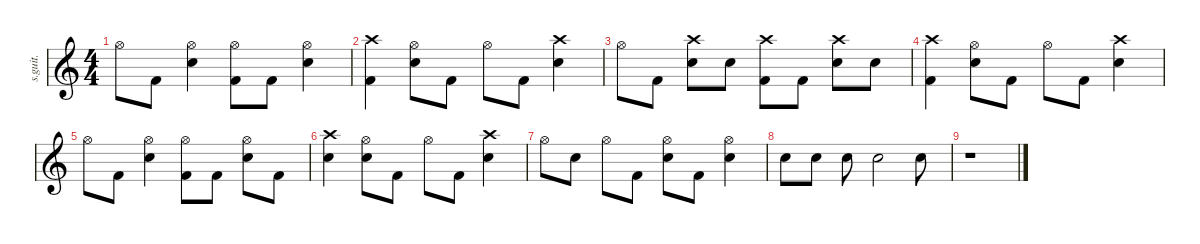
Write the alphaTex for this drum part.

\defaultSystemsLayout 4
\hideDynamics
\bracketExtendMode nobrackets
\track ("" "s.guit.") {instrument percussion}
\staff {score}
\articulation defaults
\ts (4 4)
\tempo (190 hide)
\clef g2
\ks c "Hi-Hat (open)".8{dy f} "Kick (hit) 2".8
("Hi-Hat (open)" "Snare (hit) 2").4 ("Hi-Hat (open)" "Kick (hit) 2").8 "Kick (hit) 2".8 ("Hi-Hat (open)" "Snare (hit) 2").4 |
("Crash high (hit)" "Kick (hit) 2").4 ("Hi-Hat (open)" "Snare (hit) 2").8 "Kick (hit) 2".8 "Hi-Hat (open)".8 "Kick (hit) 2".8 ("Crash high (hit)" "Snare (hit) 2").4 |
"Hi-Hat (open)".8 "Kick (hit) 2".8 ("Crash high (hit)" "Snare (hit) 2").8 "Snare (hit) 2".8 ("Crash high (hit)" "Kick (hit) 2").8 "Kick (hit) 2".8 ("Crash high (hit)" "Snare (hit) 2").8 "Snare (hit) 2".8 |
("Crash high (hit)" "Kick (hit) 2").4 ("Hi-Hat (open)" "Snare (hit) 2").8 "Kick (hit) 2".8 "Hi-Hat (open)".8 "Kick (hit) 2".8 ("Crash high (hit)" "Snare (hit) 2").4 |
"Hi-Hat (open)".8 "Kick (hit) 2".8 ("Hi-Hat (open)" "Snare (hit) 2").4 ("Hi-Hat (open)" "Kick (hit) 2").8 "Kick (hit) 2".8 ("Hi-Hat (open)" "Snare (hit) 2").8 "Kick (hit) 2".8 |
("Crash high (hit)" "Snare (hit) 2").4 ("Hi-Hat (open)" "Snare (hit) 2").8 "Kick (hit) 2".8 "Hi-Hat (open)".8 "Kick (hit) 2".8 ("Crash high (hit)" "Snare (hit) 2").4 |
"Hi-Hat (open)".8 "Snare (hit) 2".8 "Hi-Hat (open)".8 "Kick (hit) 2".8 ("Hi-Hat (open)" "Snare (hit) 2").8 "Kick (hit) 2".8 ("Hi-Hat (open)" "Snare (hit) 2").4 |
"Snare (hit) 2".8 "Snare (hit) 2".8 "Snare (hit) 2".8 "Snare (hit) 2".2 "Snare (hit) 2".8 |
r.1
